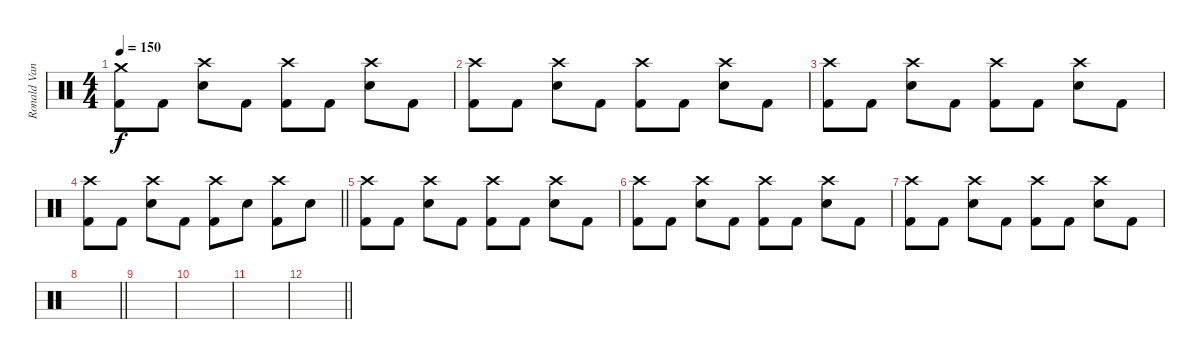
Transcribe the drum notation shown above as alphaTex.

\track ("Ronald Vanucci Jr (Drums)" "Ronald Van") {instrument percussion}
\staff {score}
\articulation defaults
\ts (4 4)
\tempo 150
\clef neutral
\ks c
("Crash medium (hit)" "Kick (hit) 2").8{dy f} "Kick (hit) 2".8 ("Crash high (hit)" "Snare (hit) 2").8 "Kick (hit) 2".8 ("Crash high (hit)" "Kick (hit) 2").8 "Kick (hit) 2".8 ("Crash high (hit)" "Snare (hit) 2").8 "Kick (hit) 2".8 |
("Crash high (hit)" "Kick (hit) 2").8{volume 0} "Kick (hit) 2".8 ("Crash high (hit)" "Snare (hit) 2").8 "Kick (hit) 2".8 ("Crash high (hit)" "Kick (hit) 2").8 "Kick (hit) 2".8 ("Crash high (hit)" "Snare (hit) 2").8 "Kick (hit) 2".8 |
("Crash high (hit)" "Kick (hit) 2").8 "Kick (hit) 2".8 ("Crash high (hit)" "Snare (hit) 2").8 "Kick (hit) 2".8 ("Crash high (hit)" "Kick (hit) 2").8 "Kick (hit) 2".8 ("Crash high (hit)" "Snare (hit) 2").8 "Kick (hit) 2".8 |
\barLineRight lightlight
("Crash high (hit)" "Kick (hit) 2").8 "Kick (hit) 2".8 ("Crash high (hit)" "Snare (hit) 2").8 "Kick (hit) 2".8 ("Crash high (hit)" "Kick (hit) 2").8 "Snare (hit) 2".8 ("Crash high (hit)" "Kick (hit) 2").8 "Snare (hit) 2".8 |
("Crash high (hit)" "Kick (hit) 2").8 "Kick (hit) 2".8 ("Crash high (hit)" "Snare (hit) 2").8 "Kick (hit) 2".8 ("Crash high (hit)" "Kick (hit) 2").8 "Kick (hit) 2".8 ("Crash high (hit)" "Snare (hit) 2").8 "Kick (hit) 2".8 |
("Crash high (hit)" "Kick (hit) 2").8 "Kick (hit) 2".8 ("Crash high (hit)" "Snare (hit) 2").8 "Kick (hit) 2".8 ("Crash high (hit)" "Kick (hit) 2").8 "Kick (hit) 2".8 ("Crash high (hit)" "Snare (hit) 2").8 "Kick (hit) 2".8 |
("Crash high (hit)" "Kick (hit) 2").8 "Kick (hit) 2".8 ("Crash high (hit)" "Snare (hit) 2").8 "Kick (hit) 2".8 ("Crash high (hit)" "Kick (hit) 2").8 "Kick (hit) 2".8 ("Crash high (hit)" "Snare (hit) 2").8 "Kick (hit) 2".8 |
\barLineRight lightlight
|
|
|
|
\barLineRight lightlight
